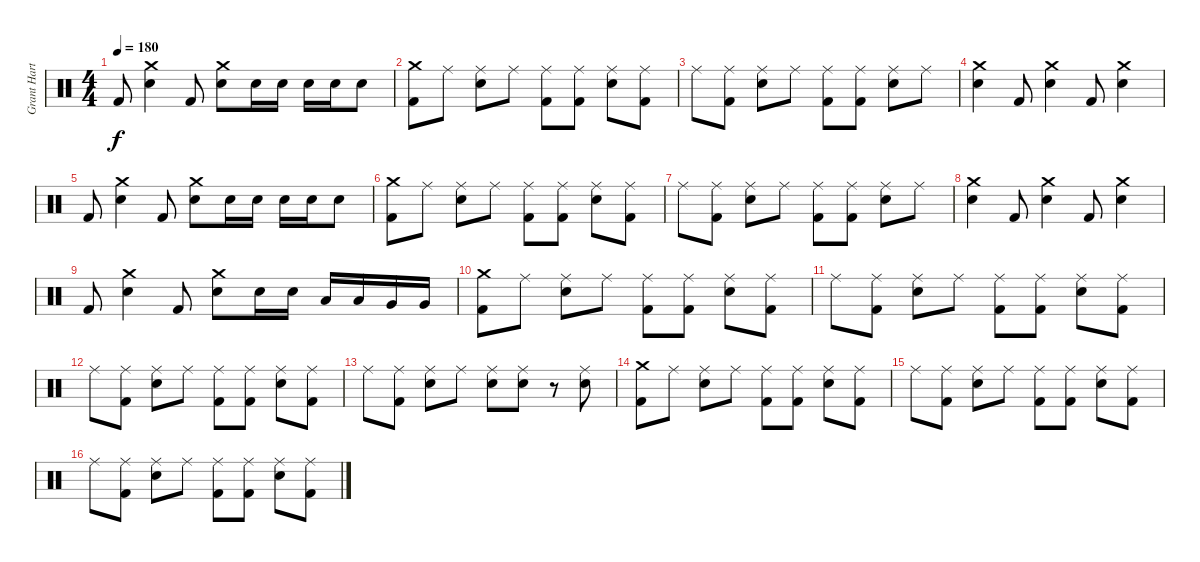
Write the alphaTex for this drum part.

\track ("Grant Hart - Drums" "Grant Hart") {instrument percussion}
\staff {score}
\articulation defaults
\ts (4 4)
\tempo 180
\clef neutral
\ks c "Kick (hit) 2".8{dy f}
("Crash medium (hit)" "Electric Snare (hit)").4 "Kick (hit) 2".8 ("Crash medium (hit)" "Electric Snare (hit)").8 "Electric Snare (hit)".16 "Electric Snare (hit)".16 "Electric Snare (hit)".16 "Electric Snare (hit)".16 "Electric Snare (hit)".8 |
("Crash medium (hit)" "Kick (hit) 2").8 "Ride (middle)".8 ("Ride (middle)" "Electric Snare (hit)").8 "Ride (middle)".8 ("Ride (middle)" "Kick (hit) 2").8 ("Ride (middle)" "Kick (hit) 2").8 ("Ride (middle)" "Electric Snare (hit)").8 ("Ride (middle)" "Kick (hit) 2").8 |
"Ride (middle)".8 ("Ride (middle)" "Kick (hit) 2").8 ("Ride (middle)" "Electric Snare (hit)").8 "Ride (middle)".8 ("Ride (middle)" "Kick (hit) 2").8 ("Ride (middle)" "Kick (hit) 2").8 ("Ride (middle)" "Electric Snare (hit)").8 "Ride (middle)".8 |
("Crash medium (hit)" "Electric Snare (hit)").4 "Kick (hit) 2".8 ("Crash medium (hit)" "Electric Snare (hit)").4 "Kick (hit) 2".8 ("Crash medium (hit)" "Electric Snare (hit)").4 |
"Kick (hit) 2".8 ("Crash medium (hit)" "Electric Snare (hit)").4 "Kick (hit) 2".8 ("Crash medium (hit)" "Electric Snare (hit)").8 "Electric Snare (hit)".16 "Electric Snare (hit)".16 "Electric Snare (hit)".16 "Electric Snare (hit)".16 "Electric Snare (hit)".8 |
("Crash medium (hit)" "Kick (hit) 2").8 "Ride (middle)".8 ("Ride (middle)" "Electric Snare (hit)").8 "Ride (middle)".8 ("Ride (middle)" "Kick (hit) 2").8 ("Ride (middle)" "Kick (hit) 2").8 ("Ride (middle)" "Electric Snare (hit)").8 ("Ride (middle)" "Kick (hit) 2").8 |
"Ride (middle)".8 ("Ride (middle)" "Kick (hit) 2").8 ("Ride (middle)" "Electric Snare (hit)").8 "Ride (middle)".8 ("Ride (middle)" "Kick (hit) 2").8 ("Ride (middle)" "Kick (hit) 2").8 ("Ride (middle)" "Electric Snare (hit)").8 "Ride (middle)".8 |
("Crash medium (hit)" "Electric Snare (hit)").4 "Kick (hit) 2".8 ("Crash medium (hit)" "Electric Snare (hit)").4 "Kick (hit) 2".8 ("Crash medium (hit)" "Electric Snare (hit)").4 |
"Kick (hit) 2".8 ("Crash medium (hit)" "Electric Snare (hit)").4 "Kick (hit) 2".8 ("Crash medium (hit)" "Electric Snare (hit)").8 "Electric Snare (hit)".16 "Electric Snare (hit)".16 "Low Tom (hit)".16 "Low Tom (hit)".16 "Very Low Tom (hit)".16 "Very Low Tom (hit)".16 |
("Crash medium (hit)" "Kick (hit) 2").8 "Ride (middle)".8 ("Ride (middle)" "Electric Snare (hit)").8 "Ride (middle)".8 ("Ride (middle)" "Kick (hit) 2").8 ("Ride (middle)" "Kick (hit) 2").8 ("Ride (middle)" "Electric Snare (hit)").8 ("Ride (middle)" "Kick (hit) 2").8 |
"Ride (middle)".8 ("Ride (middle)" "Kick (hit) 2").8 ("Ride (middle)" "Electric Snare (hit)").8 "Ride (middle)".8 ("Ride (middle)" "Kick (hit) 2").8 ("Ride (middle)" "Kick (hit) 2").8 ("Ride (middle)" "Electric Snare (hit)").8 ("Ride (middle)" "Kick (hit) 2").8 |
"Ride (middle)".8 ("Ride (middle)" "Kick (hit) 2").8 ("Ride (middle)" "Electric Snare (hit)").8 "Ride (middle)".8 ("Ride (middle)" "Kick (hit) 2").8 ("Ride (middle)" "Kick (hit) 2").8 ("Ride (middle)" "Electric Snare (hit)").8 ("Ride (middle)" "Kick (hit) 2").8 |
"Ride (middle)".8 ("Ride (middle)" "Kick (hit) 2").8 ("Ride (middle)" "Electric Snare (hit)").8 "Ride (middle)".8 ("Ride (middle)" "Electric Snare (hit)").8 ("Ride (middle)" "Electric Snare (hit)").8 r.8 ("Ride (middle)" "Electric Snare (hit)").8 |
("Crash medium (hit)" "Kick (hit) 2").8 "Ride (middle)".8 ("Ride (middle)" "Electric Snare (hit)").8 "Ride (middle)".8 ("Ride (middle)" "Kick (hit) 2").8 ("Ride (middle)" "Kick (hit) 2").8 ("Ride (middle)" "Electric Snare (hit)").8 ("Ride (middle)" "Kick (hit) 2").8 |
"Ride (middle)".8 ("Ride (middle)" "Kick (hit) 2").8 ("Ride (middle)" "Electric Snare (hit)").8 "Ride (middle)".8 ("Ride (middle)" "Kick (hit) 2").8 ("Ride (middle)" "Kick (hit) 2").8 ("Ride (middle)" "Electric Snare (hit)").8 ("Ride (middle)" "Kick (hit) 2").8 |
"Ride (middle)".8 ("Ride (middle)" "Kick (hit) 2").8 ("Ride (middle)" "Electric Snare (hit)").8 "Ride (middle)".8 ("Ride (middle)" "Kick (hit) 2").8 ("Ride (middle)" "Kick (hit) 2").8 ("Ride (middle)" "Electric Snare (hit)").8 ("Ride (middle)" "Kick (hit) 2").8
